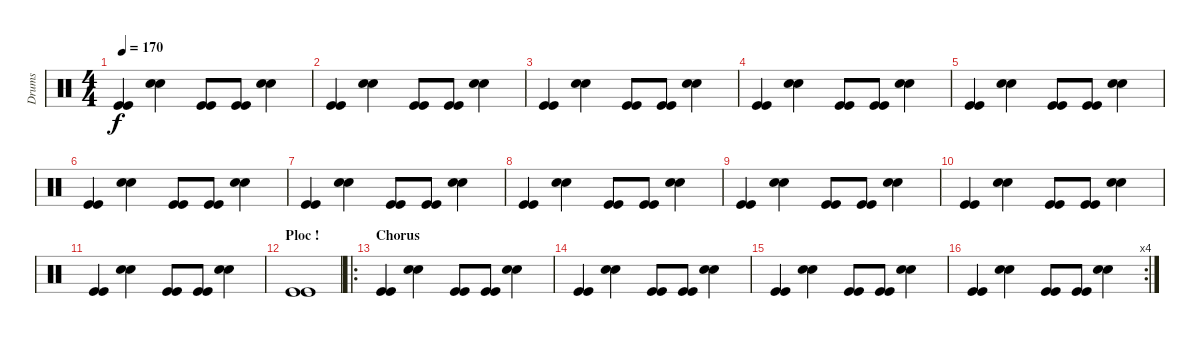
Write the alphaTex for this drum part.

\track ("Drums" "Drums") {instrument percussion}
\staff {score}
\articulation defaults
\ts (4 4)
\tempo 170
\clef neutral
\ks c
("Kick (hit)" "Kick (hit)").4{dy f} ("Snare (hit) 2" "Snare (hit) 2").4 ("Kick (hit)" "Kick (hit)").8 ("Kick (hit)" "Kick (hit)").8 ("Snare (hit) 2" "Snare (hit) 2").4 |
("Kick (hit)" "Kick (hit)").4 ("Snare (hit) 2" "Snare (hit) 2").4 ("Kick (hit)" "Kick (hit)").8 ("Kick (hit)" "Kick (hit)").8 ("Snare (hit) 2" "Snare (hit) 2").4 |
("Kick (hit)" "Kick (hit)").4 ("Snare (hit) 2" "Snare (hit) 2").4 ("Kick (hit)" "Kick (hit)").8 ("Kick (hit)" "Kick (hit)").8 ("Snare (hit) 2" "Snare (hit) 2").4 |
("Kick (hit)" "Kick (hit)").4 ("Snare (hit) 2" "Snare (hit) 2").4 ("Kick (hit)" "Kick (hit)").8 ("Kick (hit)" "Kick (hit)").8 ("Snare (hit) 2" "Snare (hit) 2").4 |
("Kick (hit)" "Kick (hit)").4 ("Snare (hit) 2" "Snare (hit) 2").4 ("Kick (hit)" "Kick (hit)").8 ("Kick (hit)" "Kick (hit)").8 ("Snare (hit) 2" "Snare (hit) 2").4 |
("Kick (hit)" "Kick (hit)").4 ("Snare (hit) 2" "Snare (hit) 2").4 ("Kick (hit)" "Kick (hit)").8 ("Kick (hit)" "Kick (hit)").8 ("Snare (hit) 2" "Snare (hit) 2").4 |
("Kick (hit)" "Kick (hit)").4 ("Snare (hit) 2" "Snare (hit) 2").4 ("Kick (hit)" "Kick (hit)").8 ("Kick (hit)" "Kick (hit)").8 ("Snare (hit) 2" "Snare (hit) 2").4 |
("Kick (hit)" "Kick (hit)").4 ("Snare (hit) 2" "Snare (hit) 2").4 ("Kick (hit)" "Kick (hit)").8 ("Kick (hit)" "Kick (hit)").8 ("Snare (hit) 2" "Snare (hit) 2").4 |
("Kick (hit)" "Kick (hit)").4 ("Snare (hit) 2" "Snare (hit) 2").4 ("Kick (hit)" "Kick (hit)").8 ("Kick (hit)" "Kick (hit)").8 ("Snare (hit) 2" "Snare (hit) 2").4 |
("Kick (hit)" "Kick (hit)").4 ("Snare (hit) 2" "Snare (hit) 2").4 ("Kick (hit)" "Kick (hit)").8 ("Kick (hit)" "Kick (hit)").8 ("Snare (hit) 2" "Snare (hit) 2").4 |
("Kick (hit)" "Kick (hit)").4 ("Snare (hit) 2" "Snare (hit) 2").4 ("Kick (hit)" "Kick (hit)").8 ("Kick (hit)" "Kick (hit)").8 ("Snare (hit) 2" "Snare (hit) 2").4 |
\section ("" "Ploc !")
("Kick (hit)" "Kick (hit)").1 |
\ro
\section ("" "Chorus")
("Kick (hit)" "Kick (hit)").4 ("Snare (hit) 2" "Snare (hit) 2").4 ("Kick (hit)" "Kick (hit)").8 ("Kick (hit)" "Kick (hit)").8 ("Snare (hit) 2" "Snare (hit) 2").4 |
("Kick (hit)" "Kick (hit)").4 ("Snare (hit) 2" "Snare (hit) 2").4 ("Kick (hit)" "Kick (hit)").8 ("Kick (hit)" "Kick (hit)").8 ("Snare (hit) 2" "Snare (hit) 2").4 |
("Kick (hit)" "Kick (hit)").4 ("Snare (hit) 2" "Snare (hit) 2").4 ("Kick (hit)" "Kick (hit)").8 ("Kick (hit)" "Kick (hit)").8 ("Snare (hit) 2" "Snare (hit) 2").4 |
\rc 4
("Kick (hit)" "Kick (hit)").4 ("Snare (hit) 2" "Snare (hit) 2").4 ("Kick (hit)" "Kick (hit)").8 ("Kick (hit)" "Kick (hit)").8 ("Snare (hit) 2" "Snare (hit) 2").4
